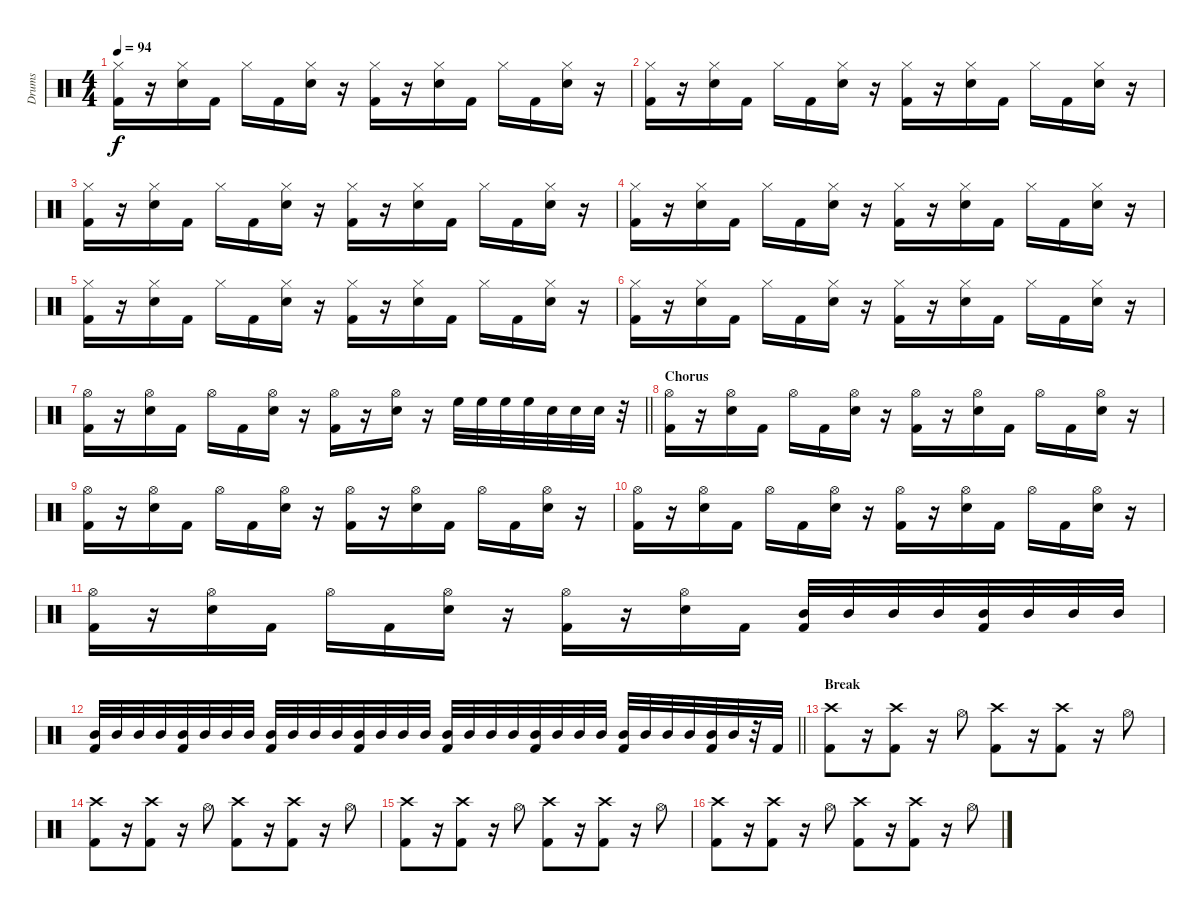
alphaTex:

\track ("Drums" "Drums") {instrument percussion}
\staff {score}
\articulation defaults
\ts (4 4)
\tempo 94
\clef neutral
\ks c
("Hi-Hat (closed)" "Kick (hit) 2").16{dy f} r.16 ("Hi-Hat (closed)" "Snare (hit) 2").16 "Kick (hit) 2".16 "Hi-Hat (closed)".16 "Kick (hit) 2".16 ("Hi-Hat (closed)" "Snare (hit) 2").16 r.16 ("Hi-Hat (closed)" "Kick (hit) 2").16 r.16 ("Hi-Hat (closed)" "Snare (hit) 2").16 "Kick (hit) 2".16 "Hi-Hat (closed)".16 "Kick (hit) 2".16 ("Hi-Hat (closed)" "Snare (hit) 2").16 r.16 |
("Hi-Hat (closed)" "Kick (hit) 2").16 r.16 ("Hi-Hat (closed)" "Snare (hit) 2").16 "Kick (hit) 2".16 "Hi-Hat (closed)".16 "Kick (hit) 2".16 ("Hi-Hat (closed)" "Snare (hit) 2").16 r.16 ("Hi-Hat (closed)" "Kick (hit) 2").16 r.16 ("Hi-Hat (closed)" "Snare (hit) 2").16 "Kick (hit) 2".16 "Hi-Hat (closed)".16 "Kick (hit) 2".16 ("Hi-Hat (closed)" "Snare (hit) 2").16 r.16 |
("Hi-Hat (closed)" "Kick (hit) 2").16 r.16 ("Hi-Hat (closed)" "Snare (hit) 2").16 "Kick (hit) 2".16 "Hi-Hat (closed)".16 "Kick (hit) 2".16 ("Hi-Hat (closed)" "Snare (hit) 2").16 r.16 ("Hi-Hat (closed)" "Kick (hit) 2").16 r.16 ("Hi-Hat (closed)" "Snare (hit) 2").16 "Kick (hit) 2".16 "Hi-Hat (closed)".16 "Kick (hit) 2".16 ("Hi-Hat (closed)" "Snare (hit) 2").16 r.16 |
("Hi-Hat (closed)" "Kick (hit) 2").16 r.16 ("Hi-Hat (closed)" "Snare (hit) 2").16 "Kick (hit) 2".16 "Hi-Hat (closed)".16 "Kick (hit) 2".16 ("Hi-Hat (closed)" "Snare (hit) 2").16 r.16 ("Hi-Hat (closed)" "Kick (hit) 2").16 r.16 ("Hi-Hat (closed)" "Snare (hit) 2").16 "Kick (hit) 2".16 "Hi-Hat (closed)".16 "Kick (hit) 2".16 ("Hi-Hat (closed)" "Snare (hit) 2").16 r.16 |
("Hi-Hat (closed)" "Kick (hit) 2").16 r.16 ("Hi-Hat (closed)" "Snare (hit) 2").16 "Kick (hit) 2".16 "Hi-Hat (closed)".16 "Kick (hit) 2".16 ("Hi-Hat (closed)" "Snare (hit) 2").16 r.16 ("Hi-Hat (closed)" "Kick (hit) 2").16 r.16 ("Hi-Hat (closed)" "Snare (hit) 2").16 "Kick (hit) 2".16 "Hi-Hat (closed)".16 "Kick (hit) 2".16 ("Hi-Hat (closed)" "Snare (hit) 2").16 r.16 |
("Hi-Hat (closed)" "Kick (hit) 2").16 r.16 ("Hi-Hat (closed)" "Snare (hit) 2").16 "Kick (hit) 2".16 "Hi-Hat (closed)".16 "Kick (hit) 2".16 ("Hi-Hat (closed)" "Snare (hit) 2").16 r.16 ("Hi-Hat (closed)" "Kick (hit) 2").16 r.16 ("Hi-Hat (closed)" "Snare (hit) 2").16 "Kick (hit) 2".16 "Hi-Hat (closed)".16 "Kick (hit) 2".16 ("Hi-Hat (closed)" "Snare (hit) 2").16 r.16 |
\barLineRight lightlight
("Hi-Hat (open)" "Kick (hit) 2").16 r.16 ("Hi-Hat (open)" "Snare (hit) 2").16 "Kick (hit) 2".16 "Hi-Hat (open)".16 "Kick (hit) 2".16 ("Hi-Hat (open)" "Snare (hit) 2").16 r.16 ("Hi-Hat (open)" "Kick (hit) 2").16 r.16 ("Hi-Hat (open)" "Snare (hit) 2").16 r.16 "High Floor Tom (hit)".32 "High Floor Tom (hit)".32 "High Floor Tom (hit)".32 "High Floor Tom (hit)".32 "Snare (hit) 2".32 "Snare (hit) 2".32 "Snare (hit) 2".32 r.32 |
\section ("" "Chorus")
("Hi-Hat (open)" "Kick (hit) 2").16 r.16 ("Hi-Hat (open)" "Snare (hit) 2").16 "Kick (hit) 2".16 "Hi-Hat (open)".16 "Kick (hit) 2".16 ("Hi-Hat (open)" "Snare (hit) 2").16 r.16 ("Hi-Hat (open)" "Kick (hit) 2").16 r.16 ("Hi-Hat (open)" "Snare (hit) 2").16 "Kick (hit) 2".16 "Hi-Hat (open)".16 "Kick (hit) 2".16 ("Hi-Hat (open)" "Snare (hit) 2").16 r.16 |
("Hi-Hat (open)" "Kick (hit) 2").16 r.16 ("Hi-Hat (open)" "Snare (hit) 2").16 "Kick (hit) 2".16 "Hi-Hat (open)".16 "Kick (hit) 2".16 ("Hi-Hat (open)" "Snare (hit) 2").16 r.16 ("Hi-Hat (open)" "Kick (hit) 2").16 r.16 ("Hi-Hat (open)" "Snare (hit) 2").16 "Kick (hit) 2".16 "Hi-Hat (open)".16 "Kick (hit) 2".16 ("Hi-Hat (open)" "Snare (hit) 2").16 r.16 |
("Hi-Hat (open)" "Kick (hit) 2").16 r.16 ("Hi-Hat (open)" "Snare (hit) 2").16 "Kick (hit) 2".16 "Hi-Hat (open)".16 "Kick (hit) 2".16 ("Hi-Hat (open)" "Snare (hit) 2").16 r.16 ("Hi-Hat (open)" "Kick (hit) 2").16 r.16 ("Hi-Hat (open)" "Snare (hit) 2").16 "Kick (hit) 2".16 "Hi-Hat (open)".16 "Kick (hit) 2".16 ("Hi-Hat (open)" "Snare (hit) 2").16 r.16 |
("Hi-Hat (open)" "Kick (hit) 2").16 r.16 ("Hi-Hat (open)" "Snare (hit) 2").16 "Kick (hit) 2".16 "Hi-Hat (open)".16 "Kick (hit) 2".16 ("Hi-Hat (open)" "Snare (hit) 2").16 r.16 ("Hi-Hat (open)" "Kick (hit) 2").16 r.16 ("Hi-Hat (open)" "Snare (hit) 2").16 "Kick (hit) 2".16 ("Kick (hit) 2" "Mid Tom (hit)").32 "Mid Tom (hit)".32 "Mid Tom (hit)".32 "Mid Tom (hit)".32 ("Kick (hit) 2" "Mid Tom (hit)").32 "Mid Tom (hit)".32 "Mid Tom (hit)".32 "Mid Tom (hit)".32 |
\barLineRight lightlight
("Kick (hit) 2" "Mid Tom (hit)").32 "Mid Tom (hit)".32 "Mid Tom (hit)".32 "Mid Tom (hit)".32 ("Kick (hit) 2" "Mid Tom (hit)").32 "Mid Tom (hit)".32 "Mid Tom (hit)".32 "Mid Tom (hit)".32 ("Kick (hit) 2" "Mid Tom (hit)").32 "Mid Tom (hit)".32 "Mid Tom (hit)".32 "Mid Tom (hit)".32 ("Kick (hit) 2" "Mid Tom (hit)").32 "Mid Tom (hit)".32 "Mid Tom (hit)".32 "Mid Tom (hit)".32 ("Kick (hit) 2" "Mid Tom (hit)").32 "Mid Tom (hit)".32 "Mid Tom (hit)".32 "Mid Tom (hit)".32 ("Kick (hit) 2" "Mid Tom (hit)").32 "Mid Tom (hit)".32 "Mid Tom (hit)".32 "Mid Tom (hit)".32 ("Kick (hit) 2" "Mid Tom (hit)").32 "Mid Tom (hit)".32 "Mid Tom (hit)".32 "Mid Tom (hit)".32 ("Kick (hit) 2" "Mid Tom (hit)").32 "Mid Tom (hit)".32 r.32 "Kick (hit) 2".32 |
\section ("" "Break")
("Crash high (hit)" "Kick (hit) 2").8 r.16 ("Crash high (hit)" "Kick (hit) 2").8 r.16 "Hi-Hat (open)".8 ("Crash high (hit)" "Kick (hit) 2").8 r.16 ("Crash high (hit)" "Kick (hit) 2").8 r.16 "Hi-Hat (open)".8 |
("Crash high (hit)" "Kick (hit) 2").8 r.16 ("Crash high (hit)" "Kick (hit) 2").8 r.16 "Hi-Hat (open)".8 ("Crash high (hit)" "Kick (hit) 2").8 r.16 ("Crash high (hit)" "Kick (hit) 2").8 r.16 "Hi-Hat (open)".8 |
("Crash high (hit)" "Kick (hit) 2").8 r.16 ("Crash high (hit)" "Kick (hit) 2").8 r.16 "Hi-Hat (open)".8 ("Crash high (hit)" "Kick (hit) 2").8 r.16 ("Crash high (hit)" "Kick (hit) 2").8 r.16 "Hi-Hat (open)".8 |
("Crash high (hit)" "Kick (hit) 2").8 r.16 ("Crash high (hit)" "Kick (hit) 2").8 r.16 "Hi-Hat (open)".8 ("Crash high (hit)" "Kick (hit) 2").8 r.16 ("Crash high (hit)" "Kick (hit) 2").8 r.16 "Hi-Hat (open)".8
